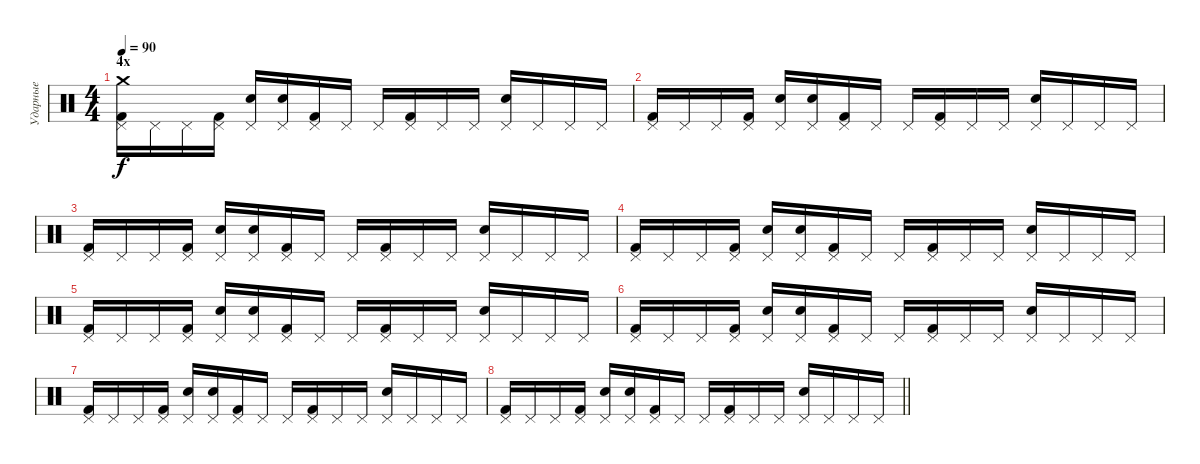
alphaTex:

\track ("Ударные" "Ударные") {instrument percussion}
\staff {score}
\articulation defaults
\ts (4 4)
\section ("" "4х")
\tempo 90
\clef neutral
\ks c
("Pedal Hi-Hat (hit)" "Kick (hit) 2" "Crash medium (hit)").16{dy f} "Pedal Hi-Hat (hit)".16 "Pedal Hi-Hat (hit)".16 ("Pedal Hi-Hat (hit)" "Kick (hit) 2").16 ("Pedal Hi-Hat (hit)" "Electric Snare (hit)").16 ("Pedal Hi-Hat (hit)" "Electric Snare (hit)").16 ("Pedal Hi-Hat (hit)" "Kick (hit) 2").16 "Pedal Hi-Hat (hit)".16 "Pedal Hi-Hat (hit)".16 ("Pedal Hi-Hat (hit)" "Kick (hit) 2").16 "Pedal Hi-Hat (hit)".16 "Pedal Hi-Hat (hit)".16 ("Pedal Hi-Hat (hit)" "Electric Snare (hit)").16 "Pedal Hi-Hat (hit)".16 "Pedal Hi-Hat (hit)".16 "Pedal Hi-Hat (hit)".16 |
("Pedal Hi-Hat (hit)" "Kick (hit) 2").16 "Pedal Hi-Hat (hit)".16 "Pedal Hi-Hat (hit)".16 ("Pedal Hi-Hat (hit)" "Kick (hit) 2").16 ("Pedal Hi-Hat (hit)" "Electric Snare (hit)").16 ("Pedal Hi-Hat (hit)" "Electric Snare (hit)").16 ("Pedal Hi-Hat (hit)" "Kick (hit) 2").16 "Pedal Hi-Hat (hit)".16 "Pedal Hi-Hat (hit)".16 ("Pedal Hi-Hat (hit)" "Kick (hit) 2").16 "Pedal Hi-Hat (hit)".16 "Pedal Hi-Hat (hit)".16 ("Pedal Hi-Hat (hit)" "Electric Snare (hit)").16 "Pedal Hi-Hat (hit)".16 "Pedal Hi-Hat (hit)".16 "Pedal Hi-Hat (hit)".16 |
("Pedal Hi-Hat (hit)" "Kick (hit) 2").16 "Pedal Hi-Hat (hit)".16 "Pedal Hi-Hat (hit)".16 ("Pedal Hi-Hat (hit)" "Kick (hit) 2").16 ("Pedal Hi-Hat (hit)" "Electric Snare (hit)").16 ("Pedal Hi-Hat (hit)" "Electric Snare (hit)").16 ("Pedal Hi-Hat (hit)" "Kick (hit) 2").16 "Pedal Hi-Hat (hit)".16 "Pedal Hi-Hat (hit)".16 ("Pedal Hi-Hat (hit)" "Kick (hit) 2").16 "Pedal Hi-Hat (hit)".16 "Pedal Hi-Hat (hit)".16 ("Pedal Hi-Hat (hit)" "Electric Snare (hit)").16 "Pedal Hi-Hat (hit)".16 "Pedal Hi-Hat (hit)".16 "Pedal Hi-Hat (hit)".16 |
("Pedal Hi-Hat (hit)" "Kick (hit) 2").16 "Pedal Hi-Hat (hit)".16 "Pedal Hi-Hat (hit)".16 ("Pedal Hi-Hat (hit)" "Kick (hit) 2").16 ("Pedal Hi-Hat (hit)" "Electric Snare (hit)").16 ("Pedal Hi-Hat (hit)" "Electric Snare (hit)").16 ("Pedal Hi-Hat (hit)" "Kick (hit) 2").16 "Pedal Hi-Hat (hit)".16 "Pedal Hi-Hat (hit)".16 ("Pedal Hi-Hat (hit)" "Kick (hit) 2").16 "Pedal Hi-Hat (hit)".16 "Pedal Hi-Hat (hit)".16 ("Pedal Hi-Hat (hit)" "Electric Snare (hit)").16 "Pedal Hi-Hat (hit)".16 "Pedal Hi-Hat (hit)".16 "Pedal Hi-Hat (hit)".16 |
("Pedal Hi-Hat (hit)" "Kick (hit) 2").16 "Pedal Hi-Hat (hit)".16 "Pedal Hi-Hat (hit)".16 ("Pedal Hi-Hat (hit)" "Kick (hit) 2").16 ("Pedal Hi-Hat (hit)" "Electric Snare (hit)").16 ("Pedal Hi-Hat (hit)" "Electric Snare (hit)").16 ("Pedal Hi-Hat (hit)" "Kick (hit) 2").16 "Pedal Hi-Hat (hit)".16 "Pedal Hi-Hat (hit)".16 ("Pedal Hi-Hat (hit)" "Kick (hit) 2").16 "Pedal Hi-Hat (hit)".16 "Pedal Hi-Hat (hit)".16 ("Pedal Hi-Hat (hit)" "Electric Snare (hit)").16 "Pedal Hi-Hat (hit)".16 "Pedal Hi-Hat (hit)".16 "Pedal Hi-Hat (hit)".16 |
("Pedal Hi-Hat (hit)" "Kick (hit) 2").16 "Pedal Hi-Hat (hit)".16 "Pedal Hi-Hat (hit)".16 ("Pedal Hi-Hat (hit)" "Kick (hit) 2").16 ("Pedal Hi-Hat (hit)" "Electric Snare (hit)").16 ("Pedal Hi-Hat (hit)" "Electric Snare (hit)").16 ("Pedal Hi-Hat (hit)" "Kick (hit) 2").16 "Pedal Hi-Hat (hit)".16 "Pedal Hi-Hat (hit)".16 ("Pedal Hi-Hat (hit)" "Kick (hit) 2").16 "Pedal Hi-Hat (hit)".16 "Pedal Hi-Hat (hit)".16 ("Pedal Hi-Hat (hit)" "Electric Snare (hit)").16 "Pedal Hi-Hat (hit)".16 "Pedal Hi-Hat (hit)".16 "Pedal Hi-Hat (hit)".16 |
("Pedal Hi-Hat (hit)" "Kick (hit) 2").16 "Pedal Hi-Hat (hit)".16 "Pedal Hi-Hat (hit)".16 ("Pedal Hi-Hat (hit)" "Kick (hit) 2").16 ("Pedal Hi-Hat (hit)" "Electric Snare (hit)").16 ("Pedal Hi-Hat (hit)" "Electric Snare (hit)").16 ("Pedal Hi-Hat (hit)" "Kick (hit) 2").16 "Pedal Hi-Hat (hit)".16 "Pedal Hi-Hat (hit)".16 ("Pedal Hi-Hat (hit)" "Kick (hit) 2").16 "Pedal Hi-Hat (hit)".16 "Pedal Hi-Hat (hit)".16 ("Pedal Hi-Hat (hit)" "Electric Snare (hit)").16 "Pedal Hi-Hat (hit)".16 "Pedal Hi-Hat (hit)".16 "Pedal Hi-Hat (hit)".16 |
\barLineRight lightlight
("Pedal Hi-Hat (hit)" "Kick (hit) 2").16 "Pedal Hi-Hat (hit)".16 "Pedal Hi-Hat (hit)".16 ("Pedal Hi-Hat (hit)" "Kick (hit) 2").16 ("Pedal Hi-Hat (hit)" "Electric Snare (hit)").16 ("Pedal Hi-Hat (hit)" "Electric Snare (hit)").16 ("Pedal Hi-Hat (hit)" "Kick (hit) 2").16 "Pedal Hi-Hat (hit)".16 "Pedal Hi-Hat (hit)".16 ("Pedal Hi-Hat (hit)" "Kick (hit) 2").16 "Pedal Hi-Hat (hit)".16 "Pedal Hi-Hat (hit)".16 ("Pedal Hi-Hat (hit)" "Electric Snare (hit)").16 "Pedal Hi-Hat (hit)".16 "Pedal Hi-Hat (hit)".16 "Pedal Hi-Hat (hit)".16
